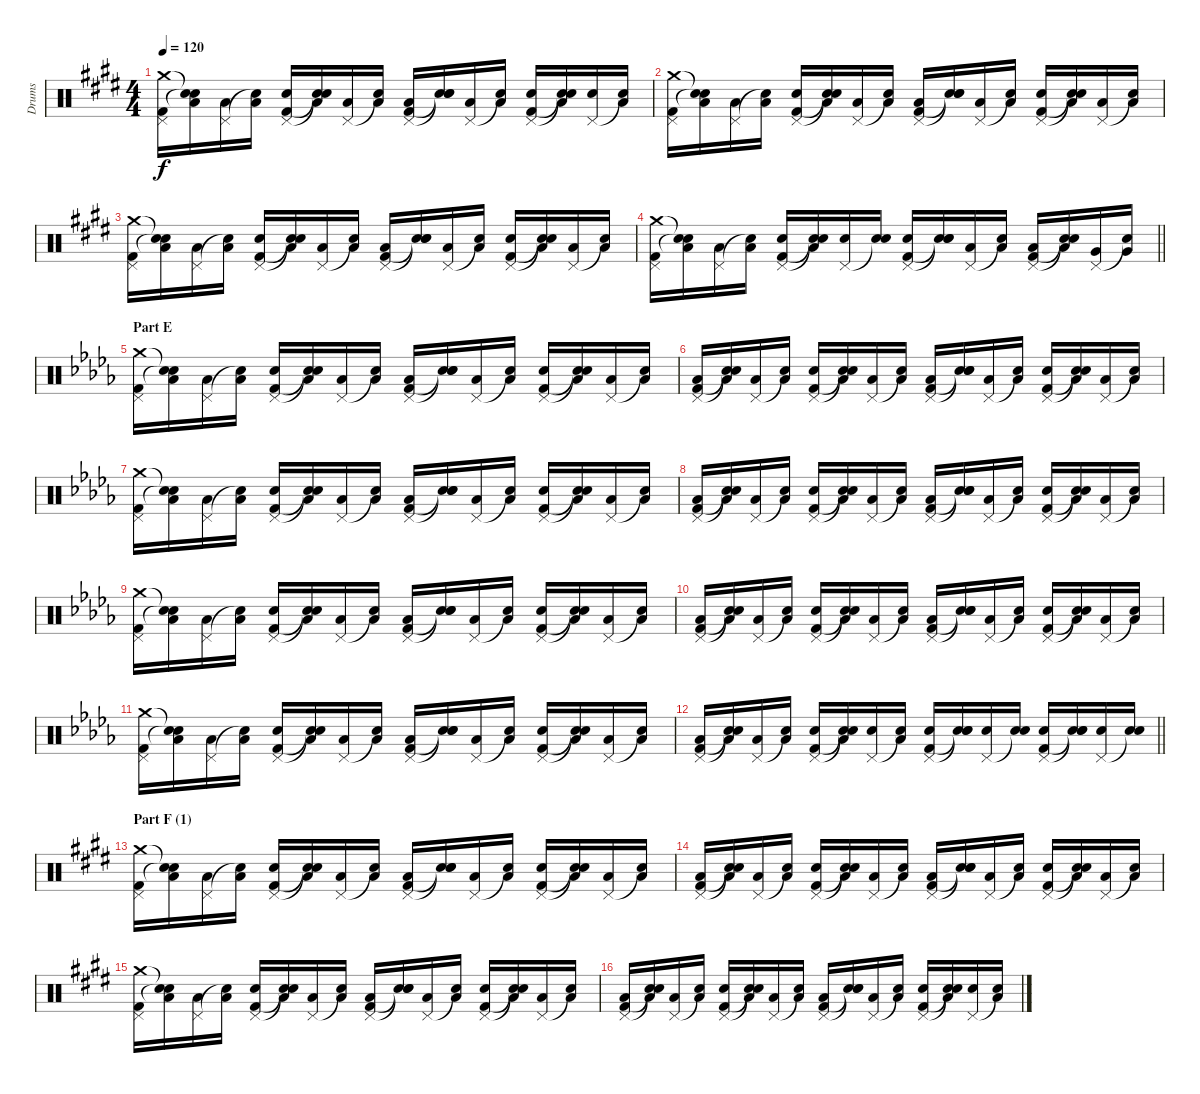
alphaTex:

\track ("Drums" "Drums") {instrument percussion}
\staff {score}
\articulation defaults
\ts (4 4)
\tempo 120
\clef neutral
\ks e
("Crash medium (hit)" "Pedal Hi-Hat (hit)" "Kick (hit) 2").16{dy f} ("Snare (hit)"{t} "Low Floor Tom (hit)" "Snare (hit)"{t}).16 ("Pedal Hi-Hat (hit)" "Low Floor Tom (hit)").16 ("Snare (hit)"{t} "Low Floor Tom (hit)").16 ("Pedal Hi-Hat (hit)" "Electric Snare (hit)" "Kick (hit) 2").16 ("Snare (hit)"{t} "Low Floor Tom (hit)" "Snare (hit)"{t}).16 ("Pedal Hi-Hat (hit)" "Low Floor Tom (hit)").16 ("Snare (hit)"{t} "Low Floor Tom (hit)").16 ("Pedal Hi-Hat (hit)" "Low Floor Tom (hit)" "Kick (hit) 2").16 ("Snare (hit)"{t} "Electric Snare (hit)" "Snare (hit)"{t}).16 ("Pedal Hi-Hat (hit)" "Low Floor Tom (hit)").16 ("Snare (hit)"{t} "Low Floor Tom (hit)").16 ("Pedal Hi-Hat (hit)" "Electric Snare (hit)" "Kick (hit) 2").16 ("Snare (hit)"{t} "Low Floor Tom (hit)" "Snare (hit)"{t}).16 ("Pedal Hi-Hat (hit)" "Electric Snare (hit)").16 ("Snare (hit)"{t} "Low Floor Tom (hit)").16 |
("Crash medium (hit)" "Pedal Hi-Hat (hit)" "Kick (hit) 2").16 ("Snare (hit)"{t} "Low Floor Tom (hit)" "Snare (hit)"{t}).16 ("Pedal Hi-Hat (hit)" "Low Floor Tom (hit)").16 ("Snare (hit)"{t} "Low Floor Tom (hit)").16 ("Pedal Hi-Hat (hit)" "Electric Snare (hit)" "Kick (hit) 2").16 ("Snare (hit)"{t} "Low Floor Tom (hit)" "Snare (hit)"{t}).16 ("Pedal Hi-Hat (hit)" "Low Floor Tom (hit)").16 ("Snare (hit)"{t} "Low Floor Tom (hit)").16 ("Pedal Hi-Hat (hit)" "Low Floor Tom (hit)" "Kick (hit) 2").16 ("Snare (hit)"{t} "Electric Snare (hit)" "Snare (hit)"{t}).16 ("Pedal Hi-Hat (hit)" "Low Floor Tom (hit)").16 ("Snare (hit)"{t} "Low Floor Tom (hit)").16 ("Pedal Hi-Hat (hit)" "Electric Snare (hit)" "Kick (hit) 2").16 ("Snare (hit)"{t} "Low Floor Tom (hit)" "Snare (hit)"{t}).16 ("Pedal Hi-Hat (hit)" "Low Floor Tom (hit)").16 ("Snare (hit)"{t} "Low Floor Tom (hit)").16 |
("Crash medium (hit)" "Pedal Hi-Hat (hit)" "Kick (hit) 2").16 ("Snare (hit)"{t} "Low Floor Tom (hit)" "Snare (hit)"{t}).16 ("Pedal Hi-Hat (hit)" "Low Floor Tom (hit)").16 ("Snare (hit)"{t} "Low Floor Tom (hit)").16 ("Pedal Hi-Hat (hit)" "Electric Snare (hit)" "Kick (hit) 2").16 ("Snare (hit)"{t} "Low Floor Tom (hit)" "Snare (hit)"{t}).16 ("Pedal Hi-Hat (hit)" "Low Floor Tom (hit)").16 ("Snare (hit)"{t} "Low Floor Tom (hit)").16 ("Pedal Hi-Hat (hit)" "Low Floor Tom (hit)" "Kick (hit) 2").16 ("Snare (hit)"{t} "Electric Snare (hit)" "Snare (hit)"{t}).16 ("Pedal Hi-Hat (hit)" "Low Floor Tom (hit)").16 ("Snare (hit)"{t} "Low Floor Tom (hit)").16 ("Pedal Hi-Hat (hit)" "Electric Snare (hit)" "Kick (hit) 2").16 ("Snare (hit)"{t} "Low Floor Tom (hit)" "Snare (hit)"{t}).16 ("Pedal Hi-Hat (hit)" "Low Floor Tom (hit)").16 ("Snare (hit)"{t} "Low Floor Tom (hit)").16 |
\barLineRight lightlight
("Crash medium (hit)" "Pedal Hi-Hat (hit)" "Kick (hit) 2").16 ("Snare (hit)"{t} "Low Floor Tom (hit)" "Snare (hit)"{t}).16 ("Pedal Hi-Hat (hit)" "Low Floor Tom (hit)").16 ("Snare (hit)"{t} "Low Floor Tom (hit)").16 ("Pedal Hi-Hat (hit)" "Electric Snare (hit)" "Kick (hit) 2").16 ("Snare (hit)"{t} "Low Floor Tom (hit)" "Snare (hit)"{t}).16 ("Pedal Hi-Hat (hit)" "Electric Snare (hit)").16 ("Snare (hit)"{t} "Electric Snare (hit)").16 ("Pedal Hi-Hat (hit)" "Electric Snare (hit)" "Kick (hit) 2").16 ("Snare (hit)"{t} "Electric Snare (hit)" "Snare (hit)"{t}).16 ("Pedal Hi-Hat (hit)" "Low Tom (hit)").16 ("Snare (hit)"{t} "Low Tom (hit)").16 ("Pedal Hi-Hat (hit)" "Low Tom (hit)" "Kick (hit) 2").16 ("Snare (hit)"{t} "Low Tom (hit)" "Snare (hit)"{t}).16 ("Pedal Hi-Hat (hit)" "Very Low Tom (hit)").16 ("Snare (hit)"{t} "Very Low Tom (hit)").16 |
\section ("" "Part E")
\ks db
("Crash medium (hit)" "Pedal Hi-Hat (hit)" "Kick (hit) 2").16 ("Snare (hit)"{t} "Low Floor Tom (hit)" "Snare (hit)"{t}).16 ("Pedal Hi-Hat (hit)" "Low Floor Tom (hit)").16 ("Snare (hit)"{t} "Low Floor Tom (hit)").16 ("Pedal Hi-Hat (hit)" "Electric Snare (hit)" "Kick (hit) 2").16 ("Snare (hit)"{t} "Low Floor Tom (hit)" "Snare (hit)"{t}).16 ("Pedal Hi-Hat (hit)" "Low Floor Tom (hit)").16 ("Snare (hit)"{t} "Low Floor Tom (hit)").16 ("Pedal Hi-Hat (hit)" "Low Floor Tom (hit)" "Kick (hit) 2").16 ("Snare (hit)"{t} "Electric Snare (hit)" "Snare (hit)"{t}).16 ("Pedal Hi-Hat (hit)" "Low Floor Tom (hit)").16 ("Snare (hit)"{t} "Low Floor Tom (hit)").16 ("Pedal Hi-Hat (hit)" "Electric Snare (hit)" "Kick (hit) 2").16 ("Snare (hit)"{t} "Low Floor Tom (hit)" "Snare (hit)"{t}).16 ("Pedal Hi-Hat (hit)" "Low Floor Tom (hit)").16 ("Snare (hit)"{t} "Low Floor Tom (hit)").16 |
("Pedal Hi-Hat (hit)" "Low Floor Tom (hit)" "Kick (hit) 2").16 ("Snare (hit)"{t} "Low Floor Tom (hit)" "Snare (hit)"{t}).16 ("Pedal Hi-Hat (hit)" "Low Floor Tom (hit)").16 ("Snare (hit)"{t} "Low Floor Tom (hit)").16 ("Pedal Hi-Hat (hit)" "Electric Snare (hit)" "Kick (hit) 2").16 ("Snare (hit)"{t} "Low Floor Tom (hit)" "Snare (hit)"{t}).16 ("Pedal Hi-Hat (hit)" "Low Floor Tom (hit)").16 ("Snare (hit)"{t} "Low Floor Tom (hit)").16 ("Pedal Hi-Hat (hit)" "Low Floor Tom (hit)" "Kick (hit) 2").16 ("Snare (hit)"{t} "Electric Snare (hit)" "Snare (hit)"{t}).16 ("Pedal Hi-Hat (hit)" "Low Floor Tom (hit)").16 ("Snare (hit)"{t} "Low Floor Tom (hit)").16 ("Pedal Hi-Hat (hit)" "Electric Snare (hit)" "Kick (hit) 2").16 ("Snare (hit)"{t} "Low Floor Tom (hit)" "Snare (hit)"{t}).16 ("Pedal Hi-Hat (hit)" "Low Floor Tom (hit)").16 ("Snare (hit)"{t} "Low Floor Tom (hit)").16 |
("Crash medium (hit)" "Pedal Hi-Hat (hit)" "Kick (hit) 2").16 ("Snare (hit)"{t} "Low Floor Tom (hit)" "Snare (hit)"{t}).16 ("Pedal Hi-Hat (hit)" "Low Floor Tom (hit)").16 ("Snare (hit)"{t} "Low Floor Tom (hit)").16 ("Pedal Hi-Hat (hit)" "Electric Snare (hit)" "Kick (hit) 2").16 ("Snare (hit)"{t} "Low Floor Tom (hit)" "Snare (hit)"{t}).16 ("Pedal Hi-Hat (hit)" "Low Floor Tom (hit)").16 ("Snare (hit)"{t} "Low Floor Tom (hit)").16 ("Pedal Hi-Hat (hit)" "Low Floor Tom (hit)" "Kick (hit) 2").16 ("Snare (hit)"{t} "Electric Snare (hit)" "Snare (hit)"{t}).16 ("Pedal Hi-Hat (hit)" "Low Floor Tom (hit)").16 ("Snare (hit)"{t} "Low Floor Tom (hit)").16 ("Pedal Hi-Hat (hit)" "Electric Snare (hit)" "Kick (hit) 2").16 ("Snare (hit)"{t} "Low Floor Tom (hit)" "Snare (hit)"{t}).16 ("Pedal Hi-Hat (hit)" "Low Floor Tom (hit)").16 ("Snare (hit)"{t} "Low Floor Tom (hit)").16 |
("Pedal Hi-Hat (hit)" "Low Floor Tom (hit)" "Kick (hit) 2").16 ("Snare (hit)"{t} "Low Floor Tom (hit)" "Snare (hit)"{t}).16 ("Pedal Hi-Hat (hit)" "Low Floor Tom (hit)").16 ("Snare (hit)"{t} "Low Floor Tom (hit)").16 ("Pedal Hi-Hat (hit)" "Electric Snare (hit)" "Kick (hit) 2").16 ("Snare (hit)"{t} "Low Floor Tom (hit)" "Snare (hit)"{t}).16 ("Pedal Hi-Hat (hit)" "Low Floor Tom (hit)").16 ("Snare (hit)"{t} "Low Floor Tom (hit)").16 ("Pedal Hi-Hat (hit)" "Low Floor Tom (hit)" "Kick (hit) 2").16 ("Snare (hit)"{t} "Electric Snare (hit)" "Snare (hit)"{t}).16 ("Pedal Hi-Hat (hit)" "Low Floor Tom (hit)").16 ("Snare (hit)"{t} "Low Floor Tom (hit)").16 ("Pedal Hi-Hat (hit)" "Electric Snare (hit)" "Kick (hit) 2").16 ("Snare (hit)"{t} "Low Floor Tom (hit)" "Snare (hit)"{t}).16 ("Pedal Hi-Hat (hit)" "Low Floor Tom (hit)").16 ("Snare (hit)"{t} "Low Floor Tom (hit)").16 |
("Crash medium (hit)" "Pedal Hi-Hat (hit)" "Kick (hit) 2").16 ("Snare (hit)"{t} "Low Floor Tom (hit)" "Snare (hit)"{t}).16 ("Pedal Hi-Hat (hit)" "Low Floor Tom (hit)").16 ("Snare (hit)"{t} "Low Floor Tom (hit)").16 ("Pedal Hi-Hat (hit)" "Electric Snare (hit)" "Kick (hit) 2").16 ("Snare (hit)"{t} "Low Floor Tom (hit)" "Snare (hit)"{t}).16 ("Pedal Hi-Hat (hit)" "Low Floor Tom (hit)").16 ("Snare (hit)"{t} "Low Floor Tom (hit)").16 ("Pedal Hi-Hat (hit)" "Low Floor Tom (hit)" "Kick (hit) 2").16 ("Snare (hit)"{t} "Electric Snare (hit)" "Snare (hit)"{t}).16 ("Pedal Hi-Hat (hit)" "Low Floor Tom (hit)").16 ("Snare (hit)"{t} "Low Floor Tom (hit)").16 ("Pedal Hi-Hat (hit)" "Electric Snare (hit)" "Kick (hit) 2").16 ("Snare (hit)"{t} "Low Floor Tom (hit)" "Snare (hit)"{t}).16 ("Pedal Hi-Hat (hit)" "Low Floor Tom (hit)").16 ("Snare (hit)"{t} "Low Floor Tom (hit)").16 |
("Pedal Hi-Hat (hit)" "Low Floor Tom (hit)" "Kick (hit) 2").16 ("Snare (hit)"{t} "Low Floor Tom (hit)" "Snare (hit)"{t}).16 ("Pedal Hi-Hat (hit)" "Low Floor Tom (hit)").16 ("Snare (hit)"{t} "Low Floor Tom (hit)").16 ("Pedal Hi-Hat (hit)" "Electric Snare (hit)" "Kick (hit) 2").16 ("Snare (hit)"{t} "Low Floor Tom (hit)" "Snare (hit)"{t}).16 ("Pedal Hi-Hat (hit)" "Low Floor Tom (hit)").16 ("Snare (hit)"{t} "Low Floor Tom (hit)").16 ("Pedal Hi-Hat (hit)" "Low Floor Tom (hit)" "Kick (hit) 2").16 ("Snare (hit)"{t} "Electric Snare (hit)" "Snare (hit)"{t}).16 ("Pedal Hi-Hat (hit)" "Low Floor Tom (hit)").16 ("Snare (hit)"{t} "Low Floor Tom (hit)").16 ("Pedal Hi-Hat (hit)" "Electric Snare (hit)" "Kick (hit) 2").16 ("Snare (hit)"{t} "Low Floor Tom (hit)" "Snare (hit)"{t}).16 ("Pedal Hi-Hat (hit)" "Low Floor Tom (hit)").16 ("Snare (hit)"{t} "Low Floor Tom (hit)").16 |
("Crash medium (hit)" "Pedal Hi-Hat (hit)" "Kick (hit) 2").16 ("Snare (hit)"{t} "Low Floor Tom (hit)" "Snare (hit)"{t}).16 ("Pedal Hi-Hat (hit)" "Low Floor Tom (hit)").16 ("Snare (hit)"{t} "Low Floor Tom (hit)").16 ("Pedal Hi-Hat (hit)" "Electric Snare (hit)" "Kick (hit) 2").16 ("Snare (hit)"{t} "Low Floor Tom (hit)" "Snare (hit)"{t}).16 ("Pedal Hi-Hat (hit)" "Low Floor Tom (hit)").16 ("Snare (hit)"{t} "Low Floor Tom (hit)").16 ("Pedal Hi-Hat (hit)" "Low Floor Tom (hit)" "Kick (hit) 2").16 ("Snare (hit)"{t} "Electric Snare (hit)" "Snare (hit)"{t}).16 ("Pedal Hi-Hat (hit)" "Low Floor Tom (hit)").16 ("Snare (hit)"{t} "Low Floor Tom (hit)").16 ("Pedal Hi-Hat (hit)" "Electric Snare (hit)" "Kick (hit) 2").16 ("Snare (hit)"{t} "Low Floor Tom (hit)" "Snare (hit)"{t}).16 ("Pedal Hi-Hat (hit)" "Low Floor Tom (hit)").16 ("Snare (hit)"{t} "Low Floor Tom (hit)").16 |
\barLineRight lightlight
("Pedal Hi-Hat (hit)" "Low Floor Tom (hit)" "Kick (hit) 2").16 ("Snare (hit)"{t} "Low Floor Tom (hit)" "Snare (hit)"{t}).16 ("Pedal Hi-Hat (hit)" "Low Floor Tom (hit)").16 ("Snare (hit)"{t} "Low Floor Tom (hit)").16 ("Pedal Hi-Hat (hit)" "Electric Snare (hit)" "Kick (hit) 2").16 ("Snare (hit)"{t} "Low Floor Tom (hit)" "Snare (hit)"{t}).16 ("Pedal Hi-Hat (hit)" "Electric Snare (hit)").16 ("Snare (hit)"{t} "Low Floor Tom (hit)").16 ("Pedal Hi-Hat (hit)" "Electric Snare (hit)" "Kick (hit) 2").16 ("Snare (hit)"{t} "Electric Snare (hit)" "Snare (hit)"{t}).16 ("Pedal Hi-Hat (hit)" "Electric Snare (hit)").16 ("Snare (hit)"{t} "Electric Snare (hit)").16 ("Pedal Hi-Hat (hit)" "Electric Snare (hit)" "Kick (hit) 2").16 ("Snare (hit)"{t} "Electric Snare (hit)" "Snare (hit)"{t}).16 ("Pedal Hi-Hat (hit)" "Electric Snare (hit)").16 ("Snare (hit)"{t} "Electric Snare (hit)").16 |
\section ("" "Part F (1)")
\ks e
("Crash medium (hit)" "Pedal Hi-Hat (hit)" "Kick (hit) 2").16 ("Snare (hit)"{t} "Low Floor Tom (hit)" "Snare (hit)"{t}).16 ("Pedal Hi-Hat (hit)" "Low Floor Tom (hit)").16 ("Snare (hit)"{t} "Low Floor Tom (hit)").16 ("Pedal Hi-Hat (hit)" "Electric Snare (hit)" "Kick (hit) 2").16 ("Snare (hit)"{t} "Low Floor Tom (hit)" "Snare (hit)"{t}).16 ("Pedal Hi-Hat (hit)" "Low Floor Tom (hit)").16 ("Snare (hit)"{t} "Low Floor Tom (hit)").16 ("Pedal Hi-Hat (hit)" "Low Floor Tom (hit)" "Kick (hit) 2").16 ("Snare (hit)"{t} "Electric Snare (hit)" "Snare (hit)"{t}).16 ("Pedal Hi-Hat (hit)" "Low Floor Tom (hit)").16 ("Snare (hit)"{t} "Low Floor Tom (hit)").16 ("Pedal Hi-Hat (hit)" "Electric Snare (hit)" "Kick (hit) 2").16 ("Snare (hit)"{t} "Low Floor Tom (hit)" "Snare (hit)"{t}).16 ("Pedal Hi-Hat (hit)" "Low Floor Tom (hit)").16 ("Snare (hit)"{t} "Low Floor Tom (hit)").16 |
("Pedal Hi-Hat (hit)" "Low Floor Tom (hit)" "Kick (hit) 2").16 ("Snare (hit)"{t} "Low Floor Tom (hit)" "Snare (hit)"{t}).16 ("Pedal Hi-Hat (hit)" "Low Floor Tom (hit)").16 ("Snare (hit)"{t} "Low Floor Tom (hit)").16 ("Pedal Hi-Hat (hit)" "Electric Snare (hit)" "Kick (hit) 2").16 ("Snare (hit)"{t} "Low Floor Tom (hit)" "Snare (hit)"{t}).16 ("Pedal Hi-Hat (hit)" "Low Floor Tom (hit)").16 ("Snare (hit)"{t} "Low Floor Tom (hit)").16 ("Pedal Hi-Hat (hit)" "Low Floor Tom (hit)" "Kick (hit) 2").16 ("Snare (hit)"{t} "Electric Snare (hit)" "Snare (hit)"{t}).16 ("Pedal Hi-Hat (hit)" "Low Floor Tom (hit)").16 ("Snare (hit)"{t} "Low Floor Tom (hit)").16 ("Pedal Hi-Hat (hit)" "Electric Snare (hit)" "Kick (hit) 2").16 ("Snare (hit)"{t} "Low Floor Tom (hit)" "Snare (hit)"{t}).16 ("Pedal Hi-Hat (hit)" "Low Floor Tom (hit)").16 ("Snare (hit)"{t} "Low Floor Tom (hit)").16 |
("Crash medium (hit)" "Pedal Hi-Hat (hit)" "Kick (hit) 2").16 ("Snare (hit)"{t} "Low Floor Tom (hit)" "Snare (hit)"{t}).16 ("Pedal Hi-Hat (hit)" "Low Floor Tom (hit)").16 ("Snare (hit)"{t} "Low Floor Tom (hit)").16 ("Pedal Hi-Hat (hit)" "Electric Snare (hit)" "Kick (hit) 2").16 ("Snare (hit)"{t} "Low Floor Tom (hit)" "Snare (hit)"{t}).16 ("Pedal Hi-Hat (hit)" "Low Floor Tom (hit)").16 ("Snare (hit)"{t} "Low Floor Tom (hit)").16 ("Pedal Hi-Hat (hit)" "Low Floor Tom (hit)" "Kick (hit) 2").16 ("Snare (hit)"{t} "Electric Snare (hit)" "Snare (hit)"{t}).16 ("Pedal Hi-Hat (hit)" "Low Floor Tom (hit)").16 ("Snare (hit)"{t} "Low Floor Tom (hit)").16 ("Pedal Hi-Hat (hit)" "Electric Snare (hit)" "Kick (hit) 2").16 ("Snare (hit)"{t} "Low Floor Tom (hit)" "Snare (hit)"{t}).16 ("Pedal Hi-Hat (hit)" "Low Floor Tom (hit)").16 ("Snare (hit)"{t} "Low Floor Tom (hit)").16 |
("Pedal Hi-Hat (hit)" "Low Floor Tom (hit)" "Kick (hit) 2").16 ("Snare (hit)"{t} "Low Floor Tom (hit)" "Snare (hit)"{t}).16 ("Pedal Hi-Hat (hit)" "Low Floor Tom (hit)").16 ("Snare (hit)"{t} "Low Floor Tom (hit)").16 ("Pedal Hi-Hat (hit)" "Electric Snare (hit)" "Kick (hit) 2").16 ("Snare (hit)"{t} "Low Floor Tom (hit)" "Snare (hit)"{t}).16 ("Pedal Hi-Hat (hit)" "Low Floor Tom (hit)").16 ("Snare (hit)"{t} "Low Floor Tom (hit)").16 ("Pedal Hi-Hat (hit)" "Low Floor Tom (hit)" "Kick (hit) 2").16 ("Snare (hit)"{t} "Electric Snare (hit)" "Snare (hit)"{t}).16 ("Pedal Hi-Hat (hit)" "Low Floor Tom (hit)").16 ("Snare (hit)"{t} "Low Floor Tom (hit)").16 ("Pedal Hi-Hat (hit)" "Electric Snare (hit)" "Kick (hit) 2").16 ("Snare (hit)"{t} "Low Floor Tom (hit)" "Snare (hit)"{t}).16 ("Pedal Hi-Hat (hit)" "Electric Snare (hit)").16 ("Snare (hit)"{t} "Low Floor Tom (hit)").16
